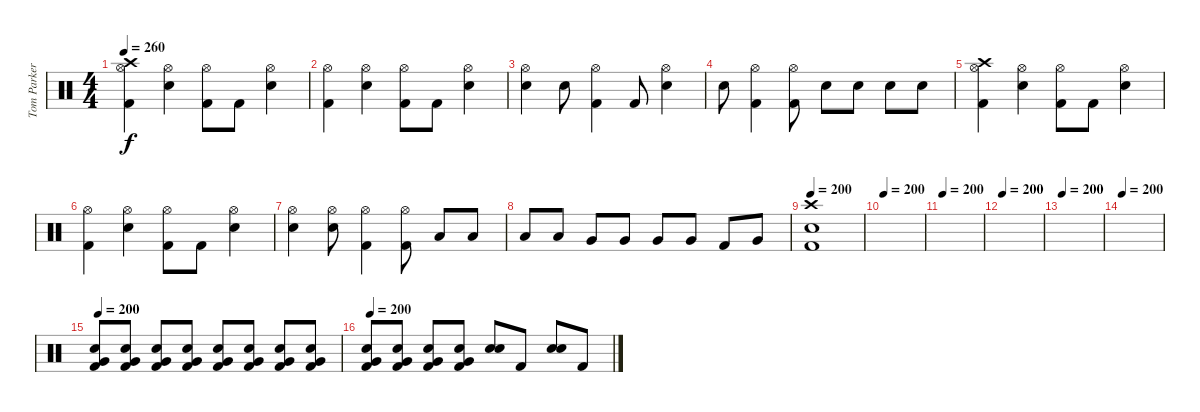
\track ("Tom Parker" "Tom Parker") {instrument percussion}
\staff {score}
\articulation defaults
\ts (4 4)
\tempo 260
\clef neutral
\ks c
("Crash high (hit)" "Hi-Hat (open)" "Kick (hit) 2").4{dy f} ("Hi-Hat (open)" "Electric Snare (hit)").4 ("Hi-Hat (open)" "Kick (hit) 2").8 "Kick (hit) 2".8 ("Hi-Hat (open)" "Electric Snare (hit)").4 |
("Hi-Hat (open)" "Kick (hit) 2").4 ("Hi-Hat (open)" "Electric Snare (hit)").4 ("Hi-Hat (open)" "Kick (hit) 2").8 "Kick (hit) 2".8 ("Hi-Hat (open)" "Electric Snare (hit)").4 |
("Hi-Hat (open)" "Electric Snare (hit)").4 "Electric Snare (hit)".8 ("Hi-Hat (open)" "Kick (hit) 2").4 "Kick (hit) 2".8 ("Hi-Hat (open)" "Electric Snare (hit)").4 |
"Electric Snare (hit)".8 ("Hi-Hat (open)" "Kick (hit) 2").4 ("Hi-Hat (open)" "Kick (hit) 2").8 "Electric Snare (hit)".8 "Electric Snare (hit)".8 "Electric Snare (hit)".8 "Electric Snare (hit)".8 |
("Crash high (hit)" "Hi-Hat (open)" "Kick (hit) 2").4 ("Hi-Hat (open)" "Electric Snare (hit)").4 ("Hi-Hat (open)" "Kick (hit) 2").8 "Kick (hit) 2".8 ("Hi-Hat (open)" "Electric Snare (hit)").4 |
("Hi-Hat (open)" "Kick (hit) 2").4 ("Hi-Hat (open)" "Electric Snare (hit)").4 ("Hi-Hat (open)" "Kick (hit) 2").8 "Kick (hit) 2".8 ("Hi-Hat (open)" "Electric Snare (hit)").4 |
("Hi-Hat (open)" "Electric Snare (hit)").4 ("Hi-Hat (open)" "Electric Snare (hit)").8 ("Hi-Hat (open)" "Kick (hit) 2").4 ("Hi-Hat (open)" "Kick (hit) 2").8 "Low Tom (hit)".8 "Low Tom (hit)".8 |
"Low Tom (hit)".8 "Low Tom (hit)".8 "Very Low Tom (hit)".8 "Very Low Tom (hit)".8 "Very Low Tom (hit)".8 "Very Low Tom (hit)".8 "Kick (hit) 2".8 "Very Low Tom (hit)".8 |
\tempo 200
("Crash high (hit)" "Electric Snare (hit)" "Kick (hit) 2").1 |
\tempo 200
|
\tempo 200
|
\tempo 200
|
\tempo 200
|
\tempo 200
|
\tempo 200
("Very Low Tom (hit)" "Electric Snare (hit)" "Kick (hit) 2").8 ("Very Low Tom (hit)" "Electric Snare (hit)" "Kick (hit) 2").8 ("Very Low Tom (hit)" "Electric Snare (hit)" "Kick (hit) 2").8 ("Very Low Tom (hit)" "Electric Snare (hit)" "Kick (hit) 2").8 ("Very Low Tom (hit)" "Electric Snare (hit)" "Kick (hit) 2").8 ("Very Low Tom (hit)" "Electric Snare (hit)" "Kick (hit) 2").8 ("Very Low Tom (hit)" "Electric Snare (hit)" "Kick (hit) 2").8 ("Very Low Tom (hit)" "Electric Snare (hit)" "Kick (hit) 2").8 |
\tempo 200
("Very Low Tom (hit)" "Electric Snare (hit)" "Kick (hit) 2").8 ("Very Low Tom (hit)" "Electric Snare (hit)" "Kick (hit) 2").8 ("Very Low Tom (hit)" "Electric Snare (hit)" "Kick (hit) 2").8 ("Very Low Tom (hit)" "Electric Snare (hit)" "Kick (hit) 2").8 ("Electric Snare (hit)" "Electric Snare (hit)").8 "Kick (hit) 2".8 ("Electric Snare (hit)" "Electric Snare (hit)").8 "Kick (hit) 2".8
